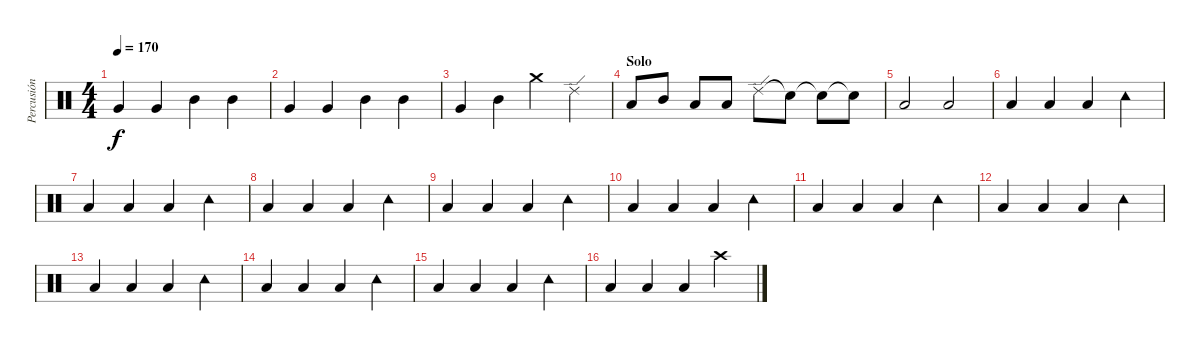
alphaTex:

\track ("Percusión" "Percusión") {instrument percussion}
\staff {score}
\articulation defaults
\ts (4 4)
\tempo 170
\clef neutral
\ks c "Very Low Tom (hit)".4{dy f} "Very Low Tom (hit)".4 "Mid Tom (hit)".4 "Mid Tom (hit)".4
|
"Very Low Tom (hit)".4 "Very Low Tom (hit)".4 "Mid Tom (hit)".4 "Mid Tom (hit)".4 |
"Very Low Tom (hit)".4 "Mid Tom (hit)".4 "Crash medium (hit)".4 "Ride (edge) 2".4 |
\section ("" "Solo")
"Low Tom (hit)".8 "Mid Tom (hit)".8 "Low Tom (hit)".8 "Low Tom (hit)".8 "Ride (edge) 2".8 "Snare (hit)"{t}.8 "Snare (hit)"{t}.8 "Snare (hit)"{t}.8 |
"Low Tom (hit)".2 "Low Tom (hit)".2 |
"Low Tom (hit)".4 "Low Tom (hit)".4 "Low Tom (hit)".4 "Tambourine (hit)".4 |
"Low Tom (hit)".4 "Low Tom (hit)".4 "Low Tom (hit)".4 "Tambourine (hit)".4 |
"Low Tom (hit)".4 "Low Tom (hit)".4 "Low Tom (hit)".4 "Tambourine (hit)".4 |
"Low Tom (hit)".4 "Low Tom (hit)".4 "Low Tom (hit)".4 "Tambourine (hit)".4 |
"Low Tom (hit)".4 "Low Tom (hit)".4 "Low Tom (hit)".4 "Tambourine (hit)".4 |
"Low Tom (hit)".4 "Low Tom (hit)".4 "Low Tom (hit)".4 "Tambourine (hit)".4 |
"Low Tom (hit)".4 "Low Tom (hit)".4 "Low Tom (hit)".4 "Tambourine (hit)".4 |
"Low Tom (hit)".4 "Low Tom (hit)".4 "Low Tom (hit)".4 "Tambourine (hit)".4 |
"Low Tom (hit)".4 "Low Tom (hit)".4 "Low Tom (hit)".4 "Tambourine (hit)".4 |
"Low Tom (hit)".4 "Low Tom (hit)".4 "Low Tom (hit)".4 "Tambourine (hit)".4 |
"Low Tom (hit)".4 "Low Tom (hit)".4 "Low Tom (hit)".4 "Crash high (hit)".4
